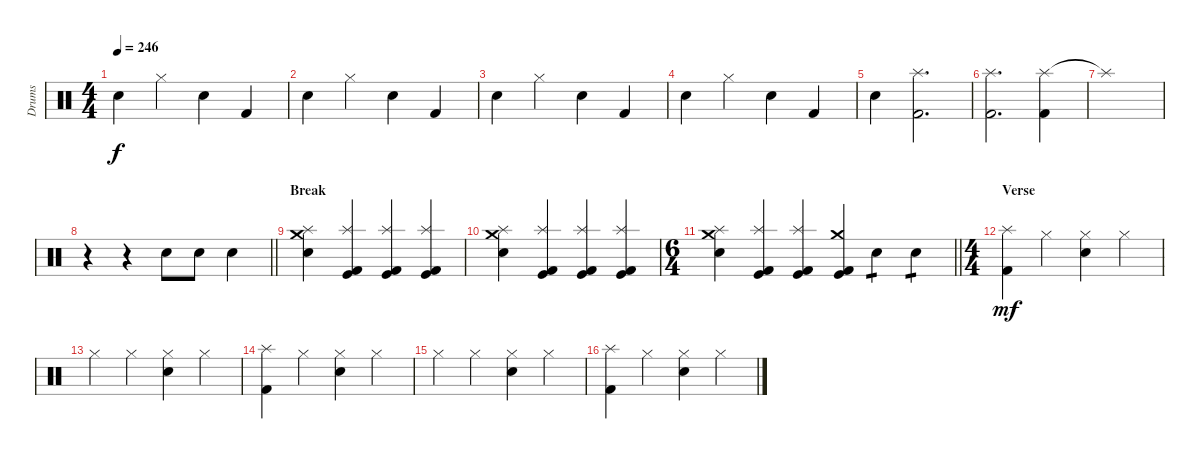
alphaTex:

\track ("Drums" "Drums") {instrument percussion}
\staff {score}
\articulation defaults
\ts (4 4)
\tempo 246
\clef neutral
\ks c "Snare (hit) 2".4{dy f} "Hi-Hat (closed)".4 "Snare (hit) 2".4 "Kick (hit) 2".4
|
"Snare (hit) 2".4 "Hi-Hat (closed)".4 "Snare (hit) 2".4 "Kick (hit) 2".4 |
"Snare (hit) 2".4 "Hi-Hat (closed)".4 "Snare (hit) 2".4 "Kick (hit) 2".4 |
"Snare (hit) 2".4 "Hi-Hat (closed)".4 "Snare (hit) 2".4 "Kick (hit) 2".4 |
"Snare (hit) 2".4 ("Splash (hit)" "Kick (hit) 2").2{d} |
("Splash (hit)" "Kick (hit) 2").2{d} ("Splash (hit)" "Kick (hit) 2").4 |
"Splash (hit)"{t}.1 |
\barLineRight lightlight
r.4 r.4 "Electric Snare (hit)".8 "Electric Snare (hit)".8 "Electric Snare (hit)".4 |
\section ("" "Break")
("Crash medium (hit)" "Splash (hit)" "Snare (hit) 2").4 ("Splash (hit)" "Kick (hit)" "Kick (hit) 2").4 ("Splash (hit)" "Kick (hit)" "Kick (hit) 2").4 ("Splash (hit)" "Kick (hit)" "Kick (hit) 2").4 |
("Crash medium (hit)" "Splash (hit)" "Snare (hit) 2").4 ("Splash (hit)" "Kick (hit)" "Kick (hit) 2").4 ("Splash (hit)" "Kick (hit)" "Kick (hit) 2").4 ("Splash (hit)" "Kick (hit)" "Kick (hit) 2").4 |
\ts (6 4)
\barLineRight lightlight
("Crash medium (hit)" "Splash (hit)" "Snare (hit) 2").4 ("Splash (hit)" "Kick (hit)" "Kick (hit) 2").4 ("Splash (hit)" "Kick (hit)" "Kick (hit) 2").4 ("Crash medium (hit)" "Kick (hit)" "Kick (hit) 2").4 "Snare (hit) 2".4{tp 1} "Snare (hit) 2".4{tp 1} |
\ts (4 4)
\section ("" "Verse")
("Splash (hit)" "Kick (hit) 2").4{dy mf} "Hi-Hat (closed)".4 ("Hi-Hat (closed)" "Snare (hit) 2").4 "Hi-Hat (closed)".4 |
"Hi-Hat (closed)".4 "Hi-Hat (closed)".4 ("Hi-Hat (closed)" "Snare (hit) 2").4 "Hi-Hat (closed)".4 |
("Splash (hit)" "Kick (hit) 2").4 "Hi-Hat (closed)".4 ("Hi-Hat (closed)" "Snare (hit) 2").4 "Hi-Hat (closed)".4 |
"Hi-Hat (closed)".4 "Hi-Hat (closed)".4 ("Hi-Hat (closed)" "Snare (hit) 2").4 "Hi-Hat (closed)".4 |
("Splash (hit)" "Kick (hit) 2").4 "Hi-Hat (closed)".4 ("Hi-Hat (closed)" "Snare (hit) 2").4 "Hi-Hat (closed)".4
